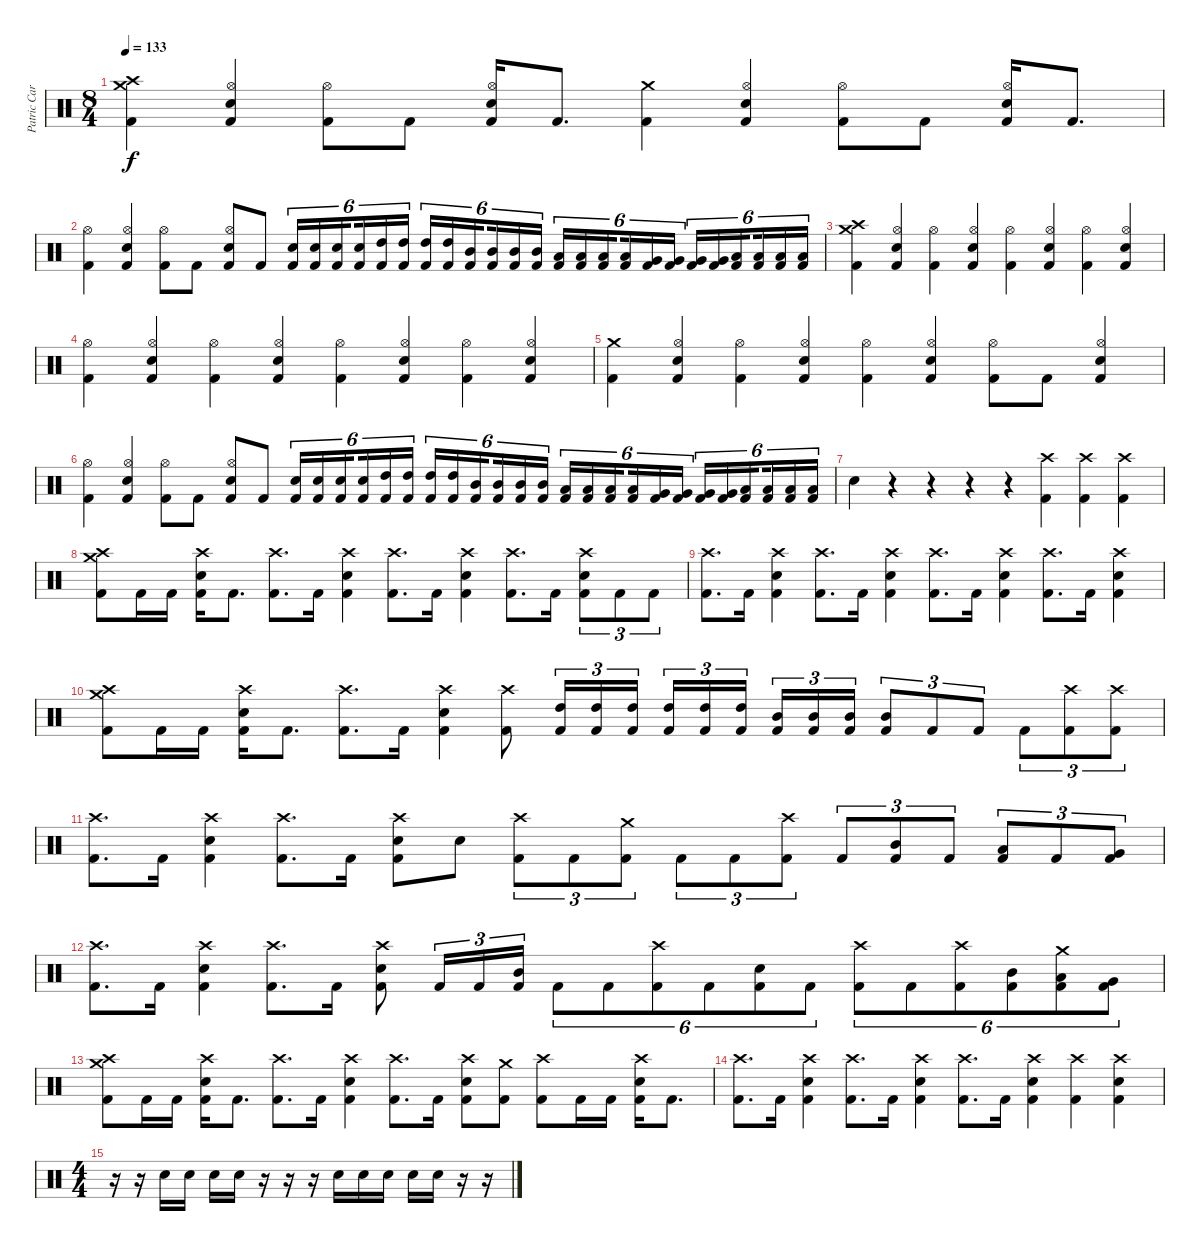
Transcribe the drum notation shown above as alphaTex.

\track ("Patric Carlsson" "Patric Car") {instrument percussion}
\staff {score}
\articulation defaults
\ts (8 4)
\tempo 133
\clef neutral
\ks c
("Crash high (hit)" "Crash medium (hit)" "Kick (hit) 2").4{dy f} ("Hi-Hat (open)" "Snare (hit) 2" "Kick (hit) 2").4 ("Hi-Hat (open)" "Kick (hit) 2").8 "Kick (hit) 2".8 ("Hi-Hat (open)" "Snare (hit) 2" "Kick (hit) 2").16 "Kick (hit) 2".8{d} ("Crash medium (hit)" "Kick (hit) 2").4 ("Hi-Hat (open)" "Snare (hit) 2" "Kick (hit) 2").4 ("Hi-Hat (open)" "Kick (hit) 2").8 "Kick (hit) 2".8 ("Hi-Hat (open)" "Snare (hit) 2" "Kick (hit) 2").16 "Kick (hit) 2".8{d} |
("Hi-Hat (open)" "Kick (hit) 2").4 ("Hi-Hat (open)" "Snare (hit) 2" "Kick (hit) 2").4 ("Hi-Hat (open)" "Kick (hit) 2").8 "Kick (hit) 2".8 ("Hi-Hat (open)" "Snare (hit) 2" "Kick (hit) 2").8 "Kick (hit) 2".8 ("Snare (hit) 2" "Kick (hit) 2").16{tu (6 4)} ("Snare (hit) 2" "Kick (hit) 2").16{tu (6 4)} ("Snare (hit) 2" "Kick (hit) 2").16{tu (6 4) beam splitsecondary} ("Snare (hit) 2" "Kick (hit) 2").16{tu (6 4)} ("High Tom (hit)" "Kick (hit) 2").16{tu (6 4)} ("High Tom (hit)" "Kick (hit) 2").16{tu (6 4)} ("High Tom (hit)" "Kick (hit) 2").16{tu (6 4)} ("High Tom (hit)" "Kick (hit) 2").16{tu (6 4)} ("Mid Tom (hit)" "Kick (hit) 2").16{tu (6 4) beam splitsecondary} ("Mid Tom (hit)" "Kick (hit) 2").16{tu (6 4)} ("Mid Tom (hit)" "Kick (hit) 2").16{tu (6 4)} ("Mid Tom (hit)" "Kick (hit) 2").16{tu (6 4)} ("Low Tom (hit)" "Kick (hit) 2").16{tu (6 4)} ("Low Tom (hit)" "Kick (hit) 2").16{tu (6 4)} ("Low Tom (hit)" "Kick (hit) 2").16{tu (6 4) beam splitsecondary} ("Low Tom (hit)" "Kick (hit) 2").16{tu (6 4)} ("Very Low Tom (hit)" "Kick (hit) 2").16{tu (6 4)} ("Very Low Tom (hit)" "Kick (hit) 2").16{tu (6 4)} ("Very Low Tom (hit)" "Kick (hit) 2").16{tu (6 4)} ("Very Low Tom (hit)" "Kick (hit) 2").16{tu (6 4)} ("Low Floor Tom (hit)" "Kick (hit) 2").16{tu (6 4) beam splitsecondary} ("Low Floor Tom (hit)" "Kick (hit) 2").16{tu (6 4)} ("Low Floor Tom (hit)" "Kick (hit) 2").16{tu (6 4)} ("Low Floor Tom (hit)" "Kick (hit) 2").16{tu (6 4)} |
("Crash medium (hit)" "Crash high (hit)" "Kick (hit) 2").4 ("Hi-Hat (open)" "Snare (hit) 2" "Kick (hit) 2").4 ("Hi-Hat (open)" "Kick (hit) 2").4 ("Hi-Hat (open)" "Snare (hit) 2" "Kick (hit) 2").4 ("Hi-Hat (open)" "Kick (hit) 2").4 ("Hi-Hat (open)" "Snare (hit) 2" "Kick (hit) 2").4 ("Hi-Hat (open)" "Kick (hit) 2").4 ("Hi-Hat (open)" "Snare (hit) 2" "Kick (hit) 2").4 |
("Hi-Hat (open)" "Kick (hit) 2").4 ("Hi-Hat (open)" "Snare (hit) 2" "Kick (hit) 2").4 ("Hi-Hat (open)" "Kick (hit) 2").4 ("Hi-Hat (open)" "Snare (hit) 2" "Kick (hit) 2").4 ("Hi-Hat (open)" "Kick (hit) 2").4 ("Hi-Hat (open)" "Snare (hit) 2" "Kick (hit) 2").4 ("Hi-Hat (open)" "Kick (hit) 2").4 ("Hi-Hat (open)" "Snare (hit) 2" "Kick (hit) 2").4 |
("Crash medium (hit)" "Kick (hit) 2").4 ("Hi-Hat (open)" "Snare (hit) 2" "Kick (hit) 2").4 ("Hi-Hat (open)" "Kick (hit) 2").4 ("Hi-Hat (open)" "Snare (hit) 2" "Kick (hit) 2").4 ("Hi-Hat (open)" "Kick (hit) 2").4 ("Hi-Hat (open)" "Snare (hit) 2" "Kick (hit) 2").4 ("Hi-Hat (open)" "Kick (hit) 2").8 "Kick (hit) 2".8 ("Hi-Hat (open)" "Snare (hit) 2" "Kick (hit) 2").4 |
("Hi-Hat (open)" "Kick (hit) 2").4 ("Hi-Hat (open)" "Snare (hit) 2" "Kick (hit) 2").4 ("Hi-Hat (open)" "Kick (hit) 2").8 "Kick (hit) 2".8 ("Hi-Hat (open)" "Snare (hit) 2" "Kick (hit) 2").8 "Kick (hit) 2".8 ("Snare (hit) 2" "Kick (hit) 2").16{tu (6 4)} ("Snare (hit) 2" "Kick (hit) 2").16{tu (6 4)} ("Snare (hit) 2" "Kick (hit) 2").16{tu (6 4) beam splitsecondary} ("Snare (hit) 2" "Kick (hit) 2").16{tu (6 4)} ("High Tom (hit)" "Kick (hit) 2").16{tu (6 4)} ("High Tom (hit)" "Kick (hit) 2").16{tu (6 4)} ("High Tom (hit)" "Kick (hit) 2").16{tu (6 4)} ("High Tom (hit)" "Kick (hit) 2").16{tu (6 4)} ("Mid Tom (hit)" "Kick (hit) 2").16{tu (6 4) beam splitsecondary} ("Mid Tom (hit)" "Kick (hit) 2").16{tu (6 4)} ("Mid Tom (hit)" "Kick (hit) 2").16{tu (6 4)} ("Mid Tom (hit)" "Kick (hit) 2").16{tu (6 4)} ("Low Tom (hit)" "Kick (hit) 2").16{tu (6 4)} ("Low Tom (hit)" "Kick (hit) 2").16{tu (6 4)} ("Low Tom (hit)" "Kick (hit) 2").16{tu (6 4) beam splitsecondary} ("Low Tom (hit)" "Kick (hit) 2").16{tu (6 4)} ("Very Low Tom (hit)" "Kick (hit) 2").16{tu (6 4)} ("Very Low Tom (hit)" "Kick (hit) 2").16{tu (6 4)} ("Very Low Tom (hit)" "Kick (hit) 2").16{tu (6 4)} ("Very Low Tom (hit)" "Kick (hit) 2").16{tu (6 4)} ("Low Floor Tom (hit)" "Kick (hit) 2").16{tu (6 4) beam splitsecondary} ("Low Floor Tom (hit)" "Kick (hit) 2").16{tu (6 4)} ("Low Floor Tom (hit)" "Kick (hit) 2").16{tu (6 4)} ("Low Floor Tom (hit)" "Kick (hit) 2").16{tu (6 4)} |
"Snare (hit) 2".4 r.4 r.4 r.4 r.4 ("Crash high (hit)" "Kick (hit) 2").4 ("Crash high (hit)" "Kick (hit) 2").4 ("Crash high (hit)" "Kick (hit) 2").4 |
("Crash medium (hit)" "Crash high (hit)" "Kick (hit) 2").8 "Kick (hit) 2".16 "Kick (hit) 2".16 ("Crash high (hit)" "Snare (hit) 2" "Kick (hit) 2").16 "Kick (hit) 2".8{d} ("Crash high (hit)" "Kick (hit) 2").8{d} "Kick (hit) 2".16 ("Crash high (hit)" "Snare (hit) 2" "Kick (hit) 2").4 ("Crash high (hit)" "Kick (hit) 2").8{d} "Kick (hit) 2".16 ("Crash high (hit)" "Snare (hit) 2" "Kick (hit) 2").4 ("Crash high (hit)" "Kick (hit) 2").8{d} "Kick (hit) 2".16 ("Crash high (hit)" "Snare (hit) 2" "Kick (hit) 2").8{tu (3 2)} "Kick (hit) 2".8{tu (3 2)} "Kick (hit) 2".8{tu (3 2)} |
("Crash high (hit)" "Kick (hit) 2").8{d} "Kick (hit) 2".16 ("Crash high (hit)" "Snare (hit) 2" "Kick (hit) 2").4 ("Crash high (hit)" "Kick (hit) 2").8{d} "Kick (hit) 2".16 ("Crash high (hit)" "Snare (hit) 2" "Kick (hit) 2").4 ("Crash high (hit)" "Kick (hit) 2").8{d} "Kick (hit) 2".16 ("Crash high (hit)" "Snare (hit) 2" "Kick (hit) 2").4 ("Crash high (hit)" "Kick (hit) 2").8{d} "Kick (hit) 2".16 ("Crash high (hit)" "Snare (hit) 2" "Kick (hit) 2").4 |
("Crash medium (hit)" "Crash high (hit)" "Kick (hit) 2").8 "Kick (hit) 2".16 "Kick (hit) 2".16 ("Crash high (hit)" "Snare (hit) 2" "Kick (hit) 2").16 "Kick (hit) 2".8{d} ("Crash high (hit)" "Kick (hit) 2").8{d} "Kick (hit) 2".16 ("Crash high (hit)" "Snare (hit) 2" "Kick (hit) 2").4 ("Crash high (hit)" "Kick (hit) 2").8 ("High Tom (hit)" "Kick (hit) 2").16{tu (3 2)} ("High Tom (hit)" "Kick (hit) 2").16{tu (3 2)} ("High Tom (hit)" "Kick (hit) 2").16{tu (3 2)} ("High Tom (hit)" "Kick (hit) 2").16{tu (3 2)} ("High Tom (hit)" "Kick (hit) 2").16{tu (3 2)} ("High Tom (hit)" "Kick (hit) 2").16{tu (3 2) beam splitsecondary} ("Mid Tom (hit)" "Kick (hit) 2").16{tu (3 2)} ("Mid Tom (hit)" "Kick (hit) 2").16{tu (3 2)} ("Mid Tom (hit)" "Kick (hit) 2").16{tu (3 2)} ("Mid Tom (hit)" "Kick (hit) 2").8{tu (3 2)} "Kick (hit) 2".8{tu (3 2)} "Kick (hit) 2".8{tu (3 2)} "Kick (hit) 2".8{tu (3 2)} ("Crash high (hit)" "Kick (hit) 2").8{tu (3 2)} ("Crash high (hit)" "Kick (hit) 2").8{tu (3 2)} |
("Crash high (hit)" "Kick (hit) 2").8{d} "Kick (hit) 2".16 ("Crash high (hit)" "Snare (hit) 2" "Kick (hit) 2").4 ("Crash high (hit)" "Kick (hit) 2").8{d} "Kick (hit) 2".16 ("Crash high (hit)" "Snare (hit) 2" "Kick (hit) 2").8 "Snare (hit) 2".8 ("Crash high (hit)" "Kick (hit) 2").8{tu (3 2)} "Kick (hit) 2".8{tu (3 2)} ("Crash medium (hit)" "Kick (hit) 2").8{tu (3 2)} "Kick (hit) 2".8{tu (3 2)} "Kick (hit) 2".8{tu (3 2)} ("Crash high (hit)" "Kick (hit) 2").8{tu (3 2)} "Kick (hit) 2".8{tu (3 2)} ("Mid Tom (hit)" "Kick (hit) 2").8{tu (3 2)} "Kick (hit) 2".8{tu (3 2)} ("Low Tom (hit)" "Kick (hit) 2").8{tu (3 2)} "Kick (hit) 2".8{tu (3 2)} ("Very Low Tom (hit)" "Kick (hit) 2").8{tu (3 2)} |
("Crash high (hit)" "Kick (hit) 2").8{d} "Kick (hit) 2".16 ("Crash high (hit)" "Snare (hit) 2" "Kick (hit) 2").4 ("Crash high (hit)" "Kick (hit) 2").8{d} "Kick (hit) 2".16 ("Crash high (hit)" "Snare (hit) 2" "Kick (hit) 2").8 "Kick (hit) 2".16{tu (3 2)} "Kick (hit) 2".16{tu (3 2)} ("Mid Tom (hit)" "Kick (hit) 2").16{tu (3 2)} "Kick (hit) 2".8{tu (6 4)} "Kick (hit) 2".8{tu (6 4)} ("Crash high (hit)" "Kick (hit) 2").8{tu (6 4)} "Kick (hit) 2".8{tu (6 4)} ("Snare (hit) 2" "Kick (hit) 2").8{tu (6 4)} "Kick (hit) 2".8{tu (6 4)} ("Crash high (hit)" "Kick (hit) 2").8{tu (6 4)} "Kick (hit) 2".8{tu (6 4)} ("Crash high (hit)" "Kick (hit) 2").8{tu (6 4)} ("Mid Tom (hit)" "Kick (hit) 2").8{tu (6 4)} ("Crash medium (hit)" "Low Tom (hit)" "Kick (hit) 2").8{tu (6 4)} ("Very Low Tom (hit)" "Kick (hit) 2").8{tu (6 4)} |
("Crash medium (hit)" "Crash high (hit)" "Kick (hit) 2").8 "Kick (hit) 2".16 "Kick (hit) 2".16 ("Crash high (hit)" "Snare (hit) 2" "Kick (hit) 2").16 "Kick (hit) 2".8{d} ("Crash high (hit)" "Kick (hit) 2").8{d} "Kick (hit) 2".16 ("Crash high (hit)" "Snare (hit) 2" "Kick (hit) 2").4 ("Crash high (hit)" "Kick (hit) 2").8{d} "Kick (hit) 2".16 ("Crash high (hit)" "Snare (hit) 2" "Kick (hit) 2").8 ("Crash medium (hit)" "Kick (hit) 2").8 ("Crash high (hit)" "Kick (hit) 2").8 "Kick (hit) 2".16 "Kick (hit) 2".16 ("Crash high (hit)" "Electric Snare (hit)" "Kick (hit) 2").16 "Kick (hit) 2".8{d} |
("Crash high (hit)" "Kick (hit) 2").8{d} "Kick (hit) 2".16 ("Crash high (hit)" "Snare (hit) 2" "Kick (hit) 2").4 ("Crash high (hit)" "Kick (hit) 2").8{d} "Kick (hit) 2".16 ("Crash high (hit)" "Snare (hit) 2" "Kick (hit) 2").4 ("Crash high (hit)" "Kick (hit) 2").8{d} "Kick (hit) 2".16 ("Crash high (hit)" "Snare (hit) 2" "Kick (hit) 2").4 ("Crash high (hit)" "Kick (hit) 2").4 ("Crash high (hit)" "Snare (hit) 2" "Kick (hit) 2").4 |
\ts (4 4)
r.16 r.16 "Snare (hit) 2".16 "Snare (hit) 2".16 "Snare (hit) 2".16 "Snare (hit) 2".16 r.16 r.16 r.16 "Snare (hit) 2".16 "Snare (hit) 2".16 "Snare (hit) 2".16 "Snare (hit) 2".16 "Snare (hit) 2".16 r.16 r.16
